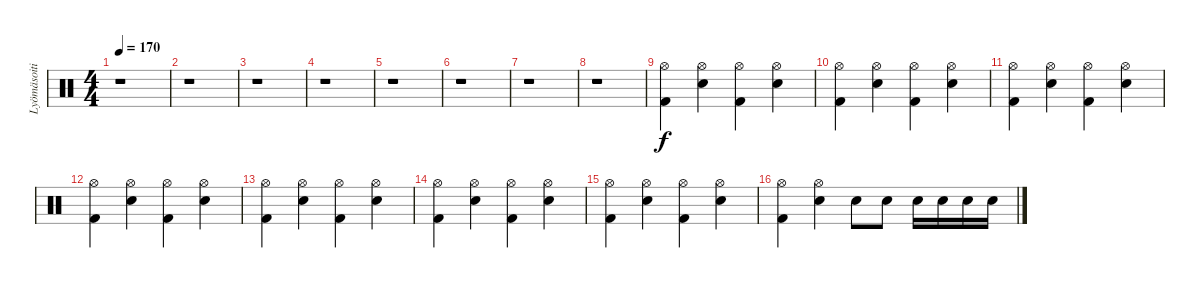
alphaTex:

\track ("Lyömäsoitin" "Lyömäsoiti") {instrument percussion}
\staff {score}
\articulation defaults
\ts (4 4)
\tempo 170
\clef neutral
\ks c
r.1{dy f} |
r.1 |
r.1 |
r.1 |
r.1 |
r.1 |
r.1 |
r.1 |
("Hi-Hat (open)" "Kick (hit) 2").4 ("Hi-Hat (open)" "Snare (hit) 2").4 ("Hi-Hat (open)" "Kick (hit) 2").4 ("Hi-Hat (open)" "Snare (hit) 2").4 |
("Hi-Hat (open)" "Kick (hit) 2").4 ("Hi-Hat (open)" "Snare (hit) 2").4 ("Hi-Hat (open)" "Kick (hit) 2").4 ("Hi-Hat (open)" "Snare (hit) 2").4 |
("Hi-Hat (open)" "Kick (hit) 2").4 ("Hi-Hat (open)" "Snare (hit) 2").4 ("Hi-Hat (open)" "Kick (hit) 2").4 ("Hi-Hat (open)" "Snare (hit) 2").4 |
("Hi-Hat (open)" "Kick (hit) 2").4 ("Hi-Hat (open)" "Snare (hit) 2").4 ("Hi-Hat (open)" "Kick (hit) 2").4 ("Hi-Hat (open)" "Snare (hit) 2").4 |
("Hi-Hat (open)" "Kick (hit) 2").4 ("Hi-Hat (open)" "Snare (hit) 2").4 ("Hi-Hat (open)" "Kick (hit) 2").4 ("Hi-Hat (open)" "Snare (hit) 2").4 |
("Hi-Hat (open)" "Kick (hit) 2").4 ("Hi-Hat (open)" "Snare (hit) 2").4 ("Hi-Hat (open)" "Kick (hit) 2").4 ("Hi-Hat (open)" "Snare (hit) 2").4 |
("Hi-Hat (open)" "Kick (hit) 2").4 ("Hi-Hat (open)" "Snare (hit) 2").4 ("Hi-Hat (open)" "Kick (hit) 2").4 ("Hi-Hat (open)" "Snare (hit) 2").4 |
("Hi-Hat (open)" "Kick (hit) 2").4 ("Hi-Hat (open)" "Snare (hit) 2").4 "Snare (hit) 2".8 "Snare (hit) 2".8 "Snare (hit) 2".16 "Snare (hit) 2".16 "Snare (hit) 2".16 "Snare (hit) 2".16
